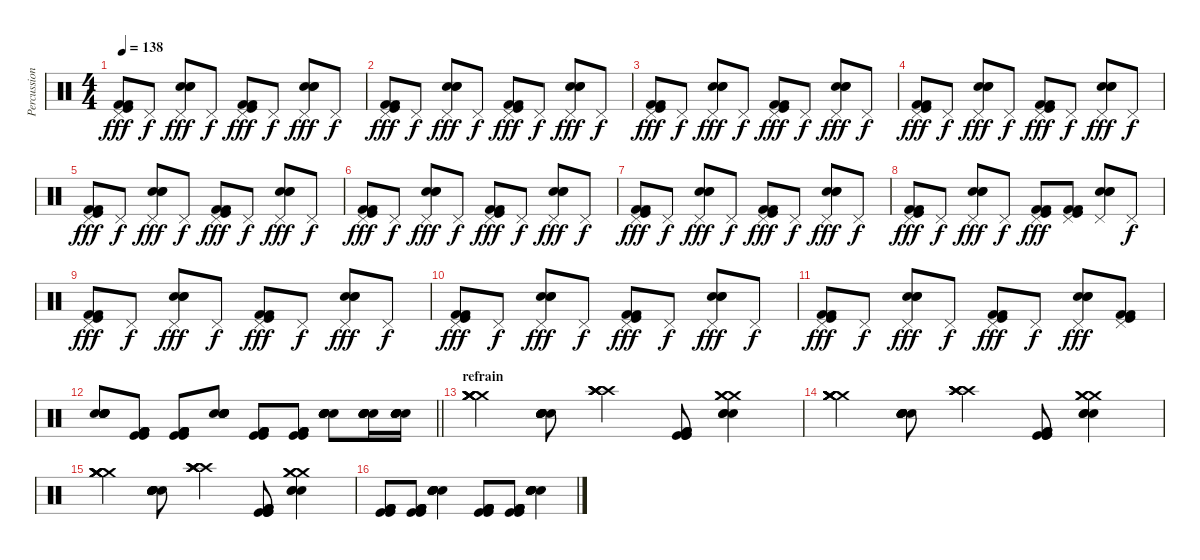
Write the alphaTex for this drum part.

\track ("Percussion" "Percussion") {instrument percussion}
\staff {score}
\articulation defaults
\ts (4 4)
\tempo 138
\clef neutral
\ks c
("Pedal Hi-Hat (hit)" "Kick (hit) 2" "Kick (hit)" "Kick (hit) 2").8{dy fff} "Pedal Hi-Hat (hit)".8{dy f} ("Pedal Hi-Hat (hit)" "Electric Snare (hit)" "Snare (hit) 2" "Electric Snare (hit)").8{dy fff} "Pedal Hi-Hat (hit)".8{dy f} ("Pedal Hi-Hat (hit)" "Kick (hit) 2" "Kick (hit)" "Kick (hit) 2").8{dy fff} "Pedal Hi-Hat (hit)".8{dy f} ("Pedal Hi-Hat (hit)" "Electric Snare (hit)" "Snare (hit) 2" "Electric Snare (hit)").8{dy fff} "Pedal Hi-Hat (hit)".8{dy f} |
("Pedal Hi-Hat (hit)" "Kick (hit) 2" "Kick (hit)" "Kick (hit) 2").8{dy fff} "Pedal Hi-Hat (hit)".8{dy f} ("Pedal Hi-Hat (hit)" "Electric Snare (hit)" "Snare (hit) 2" "Electric Snare (hit)").8{dy fff} "Pedal Hi-Hat (hit)".8{dy f} ("Pedal Hi-Hat (hit)" "Kick (hit) 2" "Kick (hit)" "Kick (hit) 2").8{dy fff} "Pedal Hi-Hat (hit)".8{dy f} ("Pedal Hi-Hat (hit)" "Electric Snare (hit)" "Snare (hit) 2" "Electric Snare (hit)").8{dy fff} "Pedal Hi-Hat (hit)".8{dy f} |
("Pedal Hi-Hat (hit)" "Kick (hit) 2" "Kick (hit)" "Kick (hit) 2").8{dy fff} "Pedal Hi-Hat (hit)".8{dy f} ("Pedal Hi-Hat (hit)" "Electric Snare (hit)" "Snare (hit) 2" "Electric Snare (hit)").8{dy fff} "Pedal Hi-Hat (hit)".8{dy f} ("Pedal Hi-Hat (hit)" "Kick (hit) 2" "Kick (hit)" "Kick (hit) 2").8{dy fff} "Pedal Hi-Hat (hit)".8{dy f} ("Pedal Hi-Hat (hit)" "Electric Snare (hit)" "Snare (hit) 2" "Electric Snare (hit)").8{dy fff} "Pedal Hi-Hat (hit)".8{dy f} |
("Pedal Hi-Hat (hit)" "Kick (hit) 2" "Kick (hit)" "Kick (hit) 2").8{dy fff} "Pedal Hi-Hat (hit)".8{dy f} ("Pedal Hi-Hat (hit)" "Electric Snare (hit)" "Snare (hit) 2" "Electric Snare (hit)").8{dy fff} "Pedal Hi-Hat (hit)".8{dy f} ("Pedal Hi-Hat (hit)" "Kick (hit) 2" "Kick (hit)" "Kick (hit) 2").8{dy fff} "Pedal Hi-Hat (hit)".8{dy f} ("Pedal Hi-Hat (hit)" "Electric Snare (hit)" "Snare (hit) 2" "Electric Snare (hit)").8{dy fff} "Pedal Hi-Hat (hit)".8{dy f} |
("Pedal Hi-Hat (hit)" "Kick (hit) 2" "Kick (hit)" "Kick (hit) 2").8{dy fff} "Pedal Hi-Hat (hit)".8{dy f} ("Pedal Hi-Hat (hit)" "Electric Snare (hit)" "Snare (hit) 2" "Electric Snare (hit)").8{dy fff} "Pedal Hi-Hat (hit)".8{dy f} ("Pedal Hi-Hat (hit)" "Kick (hit) 2" "Kick (hit)" "Kick (hit) 2").8{dy fff} "Pedal Hi-Hat (hit)".8{dy f} ("Pedal Hi-Hat (hit)" "Electric Snare (hit)" "Snare (hit) 2" "Electric Snare (hit)").8{dy fff} "Pedal Hi-Hat (hit)".8{dy f} |
("Pedal Hi-Hat (hit)" "Kick (hit) 2" "Kick (hit)" "Kick (hit) 2").8{dy fff} "Pedal Hi-Hat (hit)".8{dy f} ("Pedal Hi-Hat (hit)" "Electric Snare (hit)" "Snare (hit) 2" "Electric Snare (hit)").8{dy fff} "Pedal Hi-Hat (hit)".8{dy f} ("Pedal Hi-Hat (hit)" "Kick (hit) 2" "Kick (hit)" "Kick (hit) 2").8{dy fff} "Pedal Hi-Hat (hit)".8{dy f} ("Pedal Hi-Hat (hit)" "Electric Snare (hit)" "Snare (hit) 2" "Electric Snare (hit)").8{dy fff} "Pedal Hi-Hat (hit)".8{dy f} |
("Pedal Hi-Hat (hit)" "Kick (hit) 2" "Kick (hit)" "Kick (hit) 2").8{dy fff} "Pedal Hi-Hat (hit)".8{dy f} ("Pedal Hi-Hat (hit)" "Electric Snare (hit)" "Snare (hit) 2" "Electric Snare (hit)").8{dy fff} "Pedal Hi-Hat (hit)".8{dy f} ("Pedal Hi-Hat (hit)" "Kick (hit) 2" "Kick (hit)" "Kick (hit) 2").8{dy fff} "Pedal Hi-Hat (hit)".8{dy f} ("Pedal Hi-Hat (hit)" "Electric Snare (hit)" "Snare (hit) 2" "Electric Snare (hit)").8{dy fff} "Pedal Hi-Hat (hit)".8{dy f} |
("Pedal Hi-Hat (hit)" "Kick (hit) 2" "Kick (hit)" "Kick (hit) 2").8{dy fff} "Pedal Hi-Hat (hit)".8{dy f} ("Pedal Hi-Hat (hit)" "Electric Snare (hit)" "Snare (hit) 2" "Electric Snare (hit)").8{dy fff} "Pedal Hi-Hat (hit)".8{dy f} ("Pedal Hi-Hat (hit)" "Kick (hit) 2" "Kick (hit)" "Kick (hit) 2").8{dy fff} ("Pedal Hi-Hat (hit)" "Kick (hit) 2" "Kick (hit)" "Kick (hit) 2").8 ("Pedal Hi-Hat (hit)" "Electric Snare (hit)" "Snare (hit) 2" "Electric Snare (hit)").8 "Pedal Hi-Hat (hit)".8{dy f} |
("Pedal Hi-Hat (hit)" "Kick (hit) 2" "Kick (hit)" "Kick (hit) 2").8{dy fff} "Pedal Hi-Hat (hit)".8{dy f} ("Pedal Hi-Hat (hit)" "Electric Snare (hit)" "Snare (hit) 2" "Electric Snare (hit)").8{dy fff} "Pedal Hi-Hat (hit)".8{dy f} ("Pedal Hi-Hat (hit)" "Kick (hit) 2" "Kick (hit)" "Kick (hit) 2").8{dy fff} "Pedal Hi-Hat (hit)".8{dy f} ("Pedal Hi-Hat (hit)" "Electric Snare (hit)" "Snare (hit) 2" "Electric Snare (hit)").8{dy fff} "Pedal Hi-Hat (hit)".8{dy f} |
("Pedal Hi-Hat (hit)" "Kick (hit) 2" "Kick (hit)" "Kick (hit) 2").8{dy fff} "Pedal Hi-Hat (hit)".8{dy f} ("Pedal Hi-Hat (hit)" "Electric Snare (hit)" "Snare (hit) 2" "Electric Snare (hit)").8{dy fff} "Pedal Hi-Hat (hit)".8{dy f} ("Pedal Hi-Hat (hit)" "Kick (hit) 2" "Kick (hit)" "Kick (hit) 2").8{dy fff} "Pedal Hi-Hat (hit)".8{dy f} ("Pedal Hi-Hat (hit)" "Electric Snare (hit)" "Snare (hit) 2" "Electric Snare (hit)").8{dy fff} "Pedal Hi-Hat (hit)".8{dy f} |
("Pedal Hi-Hat (hit)" "Kick (hit) 2" "Kick (hit)" "Kick (hit) 2").8{dy fff} "Pedal Hi-Hat (hit)".8{dy f} ("Pedal Hi-Hat (hit)" "Electric Snare (hit)" "Snare (hit) 2" "Electric Snare (hit)").8{dy fff} "Pedal Hi-Hat (hit)".8{dy f} ("Pedal Hi-Hat (hit)" "Kick (hit) 2" "Kick (hit)" "Kick (hit) 2").8{dy fff} "Pedal Hi-Hat (hit)".8{dy f} ("Pedal Hi-Hat (hit)" "Electric Snare (hit)" "Snare (hit) 2" "Electric Snare (hit)").8{dy fff} ("Pedal Hi-Hat (hit)" "Kick (hit) 2" "Kick (hit)" "Kick (hit) 2").8 |
\barLineRight lightlight
("Electric Snare (hit)" "Snare (hit) 2" "Electric Snare (hit)" "Electric Snare (hit)" "Snare (hit) 2" "Electric Snare (hit)").8 ("Kick (hit) 2" "Kick (hit)" "Kick (hit) 2" "Kick (hit) 2" "Kick (hit)" "Kick (hit) 2").8 ("Kick (hit) 2" "Kick (hit)" "Kick (hit) 2" "Kick (hit) 2" "Kick (hit)" "Kick (hit) 2").8 ("Electric Snare (hit)" "Snare (hit) 2" "Electric Snare (hit)" "Electric Snare (hit)" "Snare (hit) 2" "Electric Snare (hit)").8 ("Kick (hit) 2" "Kick (hit)" "Kick (hit) 2" "Kick (hit) 2" "Kick (hit)" "Kick (hit) 2").8 ("Kick (hit) 2" "Kick (hit)" "Kick (hit) 2" "Kick (hit) 2" "Kick (hit)" "Kick (hit) 2").8 ("Electric Snare (hit)" "Snare (hit) 2" "Electric Snare (hit)" "Electric Snare (hit)" "Snare (hit) 2" "Electric Snare (hit)").8 ("Electric Snare (hit)" "Snare (hit) 2" "Electric Snare (hit)" "Electric Snare (hit)" "Snare (hit) 2" "Electric Snare (hit)").16 ("Electric Snare (hit)" "Snare (hit) 2" "Electric Snare (hit)" "Electric Snare (hit)" "Snare (hit) 2" "Electric Snare (hit)").16 |
\section ("" "refrain")
("Crash medium (hit)" "Crash medium (hit)" "Crash medium (hit)" "Crash medium (hit)" "Crash medium (hit)" "Crash medium (hit)").4 ("Electric Snare (hit)" "Snare (hit) 2" "Electric Snare (hit)" "Electric Snare (hit)" "Snare (hit) 2" "Electric Snare (hit)").8 ("Crash high (hit)" "Crash high (hit)" "Crash high (hit)" "Crash high (hit)" "Crash high (hit)" "Crash high (hit)").4 ("Kick (hit)" "Kick (hit) 2" "Kick (hit)" "Kick (hit) 2" "Kick (hit) 2" "Kick (hit)").8 ("Crash medium (hit)" "Crash medium (hit)" "Crash medium (hit)" "Electric Snare (hit)" "Electric Snare (hit)" "Electric Snare (hit)").4 |
("Crash medium (hit)" "Crash medium (hit)" "Crash medium (hit)" "Crash medium (hit)" "Crash medium (hit)" "Crash medium (hit)").4 ("Electric Snare (hit)" "Snare (hit) 2" "Electric Snare (hit)" "Electric Snare (hit)" "Snare (hit) 2" "Electric Snare (hit)").8 ("Crash high (hit)" "Crash high (hit)" "Crash high (hit)" "Crash high (hit)" "Crash high (hit)" "Crash high (hit)").4 ("Kick (hit)" "Kick (hit) 2" "Kick (hit)" "Kick (hit) 2" "Kick (hit) 2" "Kick (hit)").8 ("Crash medium (hit)" "Crash medium (hit)" "Crash medium (hit)" "Electric Snare (hit)" "Electric Snare (hit)" "Electric Snare (hit)").4 |
("Crash medium (hit)" "Crash medium (hit)" "Crash medium (hit)" "Crash medium (hit)" "Crash medium (hit)" "Crash medium (hit)").4 ("Electric Snare (hit)" "Snare (hit) 2" "Electric Snare (hit)" "Electric Snare (hit)" "Snare (hit) 2" "Electric Snare (hit)").8 ("Crash high (hit)" "Crash high (hit)" "Crash high (hit)" "Crash high (hit)" "Crash high (hit)" "Crash high (hit)").4 ("Kick (hit)" "Kick (hit) 2" "Kick (hit)" "Kick (hit) 2" "Kick (hit) 2" "Kick (hit)").8 ("Crash medium (hit)" "Crash medium (hit)" "Crash medium (hit)" "Electric Snare (hit)" "Electric Snare (hit)" "Electric Snare (hit)").4 |
("Kick (hit) 2" "Kick (hit)" "Kick (hit) 2" "Kick (hit) 2" "Kick (hit)" "Kick (hit) 2").8 ("Kick (hit) 2" "Kick (hit)" "Kick (hit) 2" "Kick (hit) 2" "Kick (hit)" "Kick (hit) 2").8 ("Electric Snare (hit)" "Snare (hit) 2" "Electric Snare (hit)" "Electric Snare (hit)" "Snare (hit) 2" "Electric Snare (hit)").4 ("Kick (hit) 2" "Kick (hit)" "Kick (hit) 2" "Kick (hit) 2" "Kick (hit)" "Kick (hit) 2").8 ("Kick (hit) 2" "Kick (hit)" "Kick (hit) 2" "Kick (hit) 2" "Kick (hit)" "Kick (hit) 2").8 ("Electric Snare (hit)" "Snare (hit) 2" "Electric Snare (hit)" "Electric Snare (hit)" "Snare (hit) 2" "Electric Snare (hit)").4
